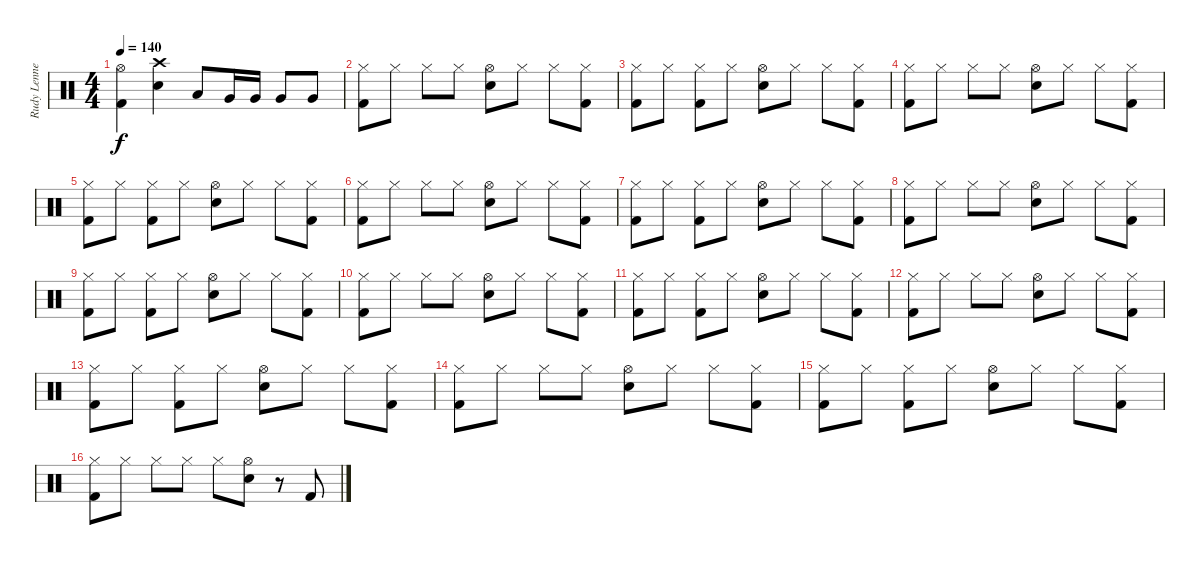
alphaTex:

\track ("Rudy Lenners" "Rudy Lenne") {instrument percussion}
\staff {score}
\articulation defaults
\ts (4 4)
\tempo 140
\clef neutral
\ks c
("Hi-Hat (open)" "Kick (hit) 2").4{dy f} ("Crash high (hit)" "Snare (hit) 2").4 "Low Tom (hit)".8 "Very Low Tom (hit)".16 "Very Low Tom (hit)".16 "Very Low Tom (hit)".8 "Very Low Tom (hit)".8 |
("Hi-Hat (closed)" "Kick (hit) 2").8 "Hi-Hat (closed)".8 "Hi-Hat (closed)".8 "Hi-Hat (closed)".8 ("Hi-Hat (open)" "Snare (hit) 2").8 "Hi-Hat (closed)".8 "Hi-Hat (closed)".8 ("Hi-Hat (closed)" "Kick (hit) 2").8 |
("Hi-Hat (closed)" "Kick (hit) 2").8 "Hi-Hat (closed)".8 ("Hi-Hat (closed)" "Kick (hit) 2").8 "Hi-Hat (closed)".8 ("Hi-Hat (open)" "Snare (hit) 2").8 "Hi-Hat (closed)".8 "Hi-Hat (closed)".8 ("Hi-Hat (closed)" "Kick (hit) 2").8 |
("Hi-Hat (closed)" "Kick (hit) 2").8 "Hi-Hat (closed)".8 "Hi-Hat (closed)".8 "Hi-Hat (closed)".8 ("Hi-Hat (open)" "Snare (hit) 2").8 "Hi-Hat (closed)".8 "Hi-Hat (closed)".8 ("Hi-Hat (closed)" "Kick (hit) 2").8 |
("Hi-Hat (closed)" "Kick (hit) 2").8 "Hi-Hat (closed)".8 ("Hi-Hat (closed)" "Kick (hit) 2").8 "Hi-Hat (closed)".8 ("Hi-Hat (open)" "Snare (hit) 2").8 "Hi-Hat (closed)".8 "Hi-Hat (closed)".8 ("Hi-Hat (closed)" "Kick (hit) 2").8 |
("Hi-Hat (closed)" "Kick (hit) 2").8 "Hi-Hat (closed)".8 "Hi-Hat (closed)".8 "Hi-Hat (closed)".8 ("Hi-Hat (open)" "Snare (hit) 2").8 "Hi-Hat (closed)".8 "Hi-Hat (closed)".8 ("Hi-Hat (closed)" "Kick (hit) 2").8 |
("Hi-Hat (closed)" "Kick (hit) 2").8 "Hi-Hat (closed)".8 ("Hi-Hat (closed)" "Kick (hit) 2").8 "Hi-Hat (closed)".8 ("Hi-Hat (open)" "Snare (hit) 2").8 "Hi-Hat (closed)".8 "Hi-Hat (closed)".8 ("Hi-Hat (closed)" "Kick (hit) 2").8 |
("Hi-Hat (closed)" "Kick (hit) 2").8 "Hi-Hat (closed)".8 "Hi-Hat (closed)".8 "Hi-Hat (closed)".8 ("Hi-Hat (open)" "Snare (hit) 2").8 "Hi-Hat (closed)".8 "Hi-Hat (closed)".8 ("Hi-Hat (closed)" "Kick (hit) 2").8 |
("Hi-Hat (closed)" "Kick (hit) 2").8 "Hi-Hat (closed)".8 ("Hi-Hat (closed)" "Kick (hit) 2").8 "Hi-Hat (closed)".8 ("Hi-Hat (open)" "Snare (hit) 2").8 "Hi-Hat (closed)".8 "Hi-Hat (closed)".8 ("Hi-Hat (closed)" "Kick (hit) 2").8 |
("Hi-Hat (closed)" "Kick (hit) 2").8 "Hi-Hat (closed)".8 "Hi-Hat (closed)".8 "Hi-Hat (closed)".8 ("Hi-Hat (open)" "Snare (hit) 2").8 "Hi-Hat (closed)".8 "Hi-Hat (closed)".8 ("Hi-Hat (closed)" "Kick (hit) 2").8 |
("Hi-Hat (closed)" "Kick (hit) 2").8 "Hi-Hat (closed)".8 ("Hi-Hat (closed)" "Kick (hit) 2").8 "Hi-Hat (closed)".8 ("Hi-Hat (open)" "Snare (hit) 2").8 "Hi-Hat (closed)".8 "Hi-Hat (closed)".8 ("Hi-Hat (closed)" "Kick (hit) 2").8 |
("Hi-Hat (closed)" "Kick (hit) 2").8 "Hi-Hat (closed)".8 "Hi-Hat (closed)".8 "Hi-Hat (closed)".8 ("Hi-Hat (open)" "Snare (hit) 2").8 "Hi-Hat (closed)".8 "Hi-Hat (closed)".8 ("Hi-Hat (closed)" "Kick (hit) 2").8 |
("Hi-Hat (closed)" "Kick (hit) 2").8 "Hi-Hat (closed)".8 ("Hi-Hat (closed)" "Kick (hit) 2").8 "Hi-Hat (closed)".8 ("Hi-Hat (open)" "Snare (hit) 2").8 "Hi-Hat (closed)".8 "Hi-Hat (closed)".8 ("Hi-Hat (closed)" "Kick (hit) 2").8 |
("Hi-Hat (closed)" "Kick (hit) 2").8 "Hi-Hat (closed)".8 "Hi-Hat (closed)".8 "Hi-Hat (closed)".8 ("Hi-Hat (open)" "Snare (hit) 2").8 "Hi-Hat (closed)".8 "Hi-Hat (closed)".8 ("Hi-Hat (closed)" "Kick (hit) 2").8 |
("Hi-Hat (closed)" "Kick (hit) 2").8 "Hi-Hat (closed)".8 ("Hi-Hat (closed)" "Kick (hit) 2").8 "Hi-Hat (closed)".8 ("Hi-Hat (open)" "Snare (hit) 2").8 "Hi-Hat (closed)".8 "Hi-Hat (closed)".8 ("Hi-Hat (closed)" "Kick (hit) 2").8 |
("Hi-Hat (closed)" "Kick (hit) 2").8 "Hi-Hat (closed)".8 "Hi-Hat (closed)".8 "Hi-Hat (closed)".8 "Hi-Hat (closed)".8 ("Hi-Hat (open)" "Snare (hit) 2").8 r.8 "Kick (hit) 2".8
